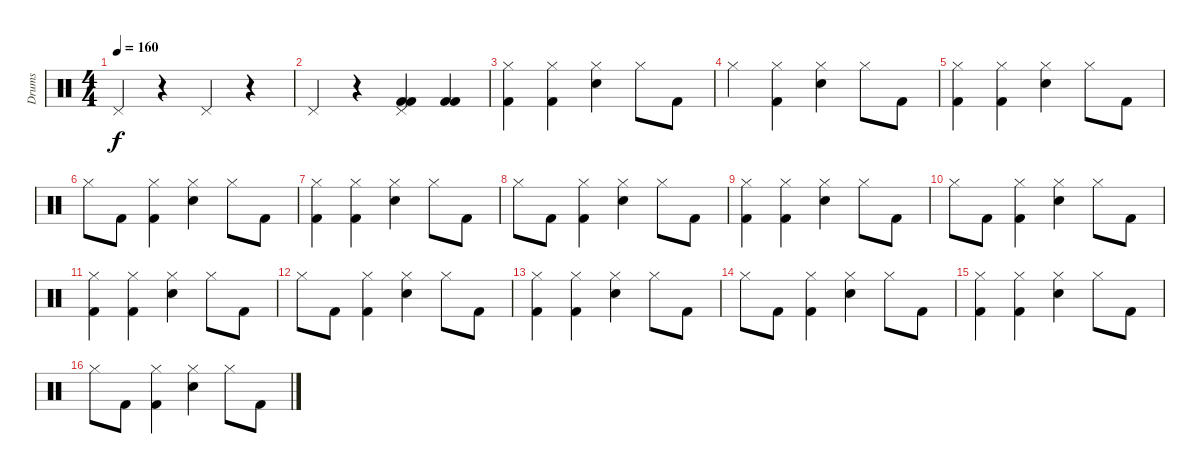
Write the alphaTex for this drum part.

\track ("Drums" "Drums") {instrument percussion}
\staff {score}
\articulation defaults
\ts (4 4)
\tempo 160
\clef neutral
\ks c "Pedal Hi-Hat (hit)".4{dy f}
r.4 "Pedal Hi-Hat (hit)".4 r.4 |
"Pedal Hi-Hat (hit)".4 r.4 ("Kick (hit) 2" "Kick (hit) 2" "Pedal Hi-Hat (hit)").4 ("Kick (hit) 2" "Kick (hit) 2").4 |
("Kick (hit) 2" "Hi-Hat (closed)").4 ("Kick (hit) 2" "Hi-Hat (closed)").4 ("Electric Snare (hit)" "Hi-Hat (closed)").4 "Hi-Hat (closed)".8 "Kick (hit) 2".8 |
"Hi-Hat (closed)".4 ("Kick (hit) 2" "Hi-Hat (closed)").4 ("Electric Snare (hit)" "Hi-Hat (closed)").4 "Hi-Hat (closed)".8 "Kick (hit) 2".8 |
("Kick (hit) 2" "Hi-Hat (closed)").4 ("Kick (hit) 2" "Hi-Hat (closed)").4 ("Electric Snare (hit)" "Hi-Hat (closed)").4 "Hi-Hat (closed)".8 "Kick (hit) 2".8 |
"Hi-Hat (closed)".8 "Kick (hit) 2".8 ("Kick (hit) 2" "Hi-Hat (closed)").4 ("Electric Snare (hit)" "Hi-Hat (closed)").4 "Hi-Hat (closed)".8 "Kick (hit) 2".8 |
("Kick (hit) 2" "Hi-Hat (closed)").4 ("Kick (hit) 2" "Hi-Hat (closed)").4 ("Electric Snare (hit)" "Hi-Hat (closed)").4 "Hi-Hat (closed)".8 "Kick (hit) 2".8 |
"Hi-Hat (closed)".8 "Kick (hit) 2".8 ("Kick (hit) 2" "Hi-Hat (closed)").4 ("Electric Snare (hit)" "Hi-Hat (closed)").4 "Hi-Hat (closed)".8 "Kick (hit) 2".8 |
("Kick (hit) 2" "Hi-Hat (closed)").4 ("Kick (hit) 2" "Hi-Hat (closed)").4 ("Electric Snare (hit)" "Hi-Hat (closed)").4 "Hi-Hat (closed)".8 "Kick (hit) 2".8 |
"Hi-Hat (closed)".8 "Kick (hit) 2".8 ("Kick (hit) 2" "Hi-Hat (closed)").4 ("Electric Snare (hit)" "Hi-Hat (closed)").4 "Hi-Hat (closed)".8 "Kick (hit) 2".8 |
("Kick (hit) 2" "Hi-Hat (closed)").4 ("Kick (hit) 2" "Hi-Hat (closed)").4 ("Electric Snare (hit)" "Hi-Hat (closed)").4 "Hi-Hat (closed)".8 "Kick (hit) 2".8 |
"Hi-Hat (closed)".8 "Kick (hit) 2".8 ("Kick (hit) 2" "Hi-Hat (closed)").4 ("Electric Snare (hit)" "Hi-Hat (closed)").4 "Hi-Hat (closed)".8 "Kick (hit) 2".8 |
("Kick (hit) 2" "Hi-Hat (closed)").4 ("Kick (hit) 2" "Hi-Hat (closed)").4 ("Electric Snare (hit)" "Hi-Hat (closed)").4 "Hi-Hat (closed)".8 "Kick (hit) 2".8 |
"Hi-Hat (closed)".8 "Kick (hit) 2".8 ("Kick (hit) 2" "Hi-Hat (closed)").4 ("Electric Snare (hit)" "Hi-Hat (closed)").4 "Hi-Hat (closed)".8 "Kick (hit) 2".8 |
("Kick (hit) 2" "Hi-Hat (closed)").4 ("Kick (hit) 2" "Hi-Hat (closed)").4 ("Electric Snare (hit)" "Hi-Hat (closed)").4 "Hi-Hat (closed)".8 "Kick (hit) 2".8 |
"Hi-Hat (closed)".8 "Kick (hit) 2".8 ("Kick (hit) 2" "Hi-Hat (closed)").4 ("Electric Snare (hit)" "Hi-Hat (closed)").4 "Hi-Hat (closed)".8 "Kick (hit) 2".8
